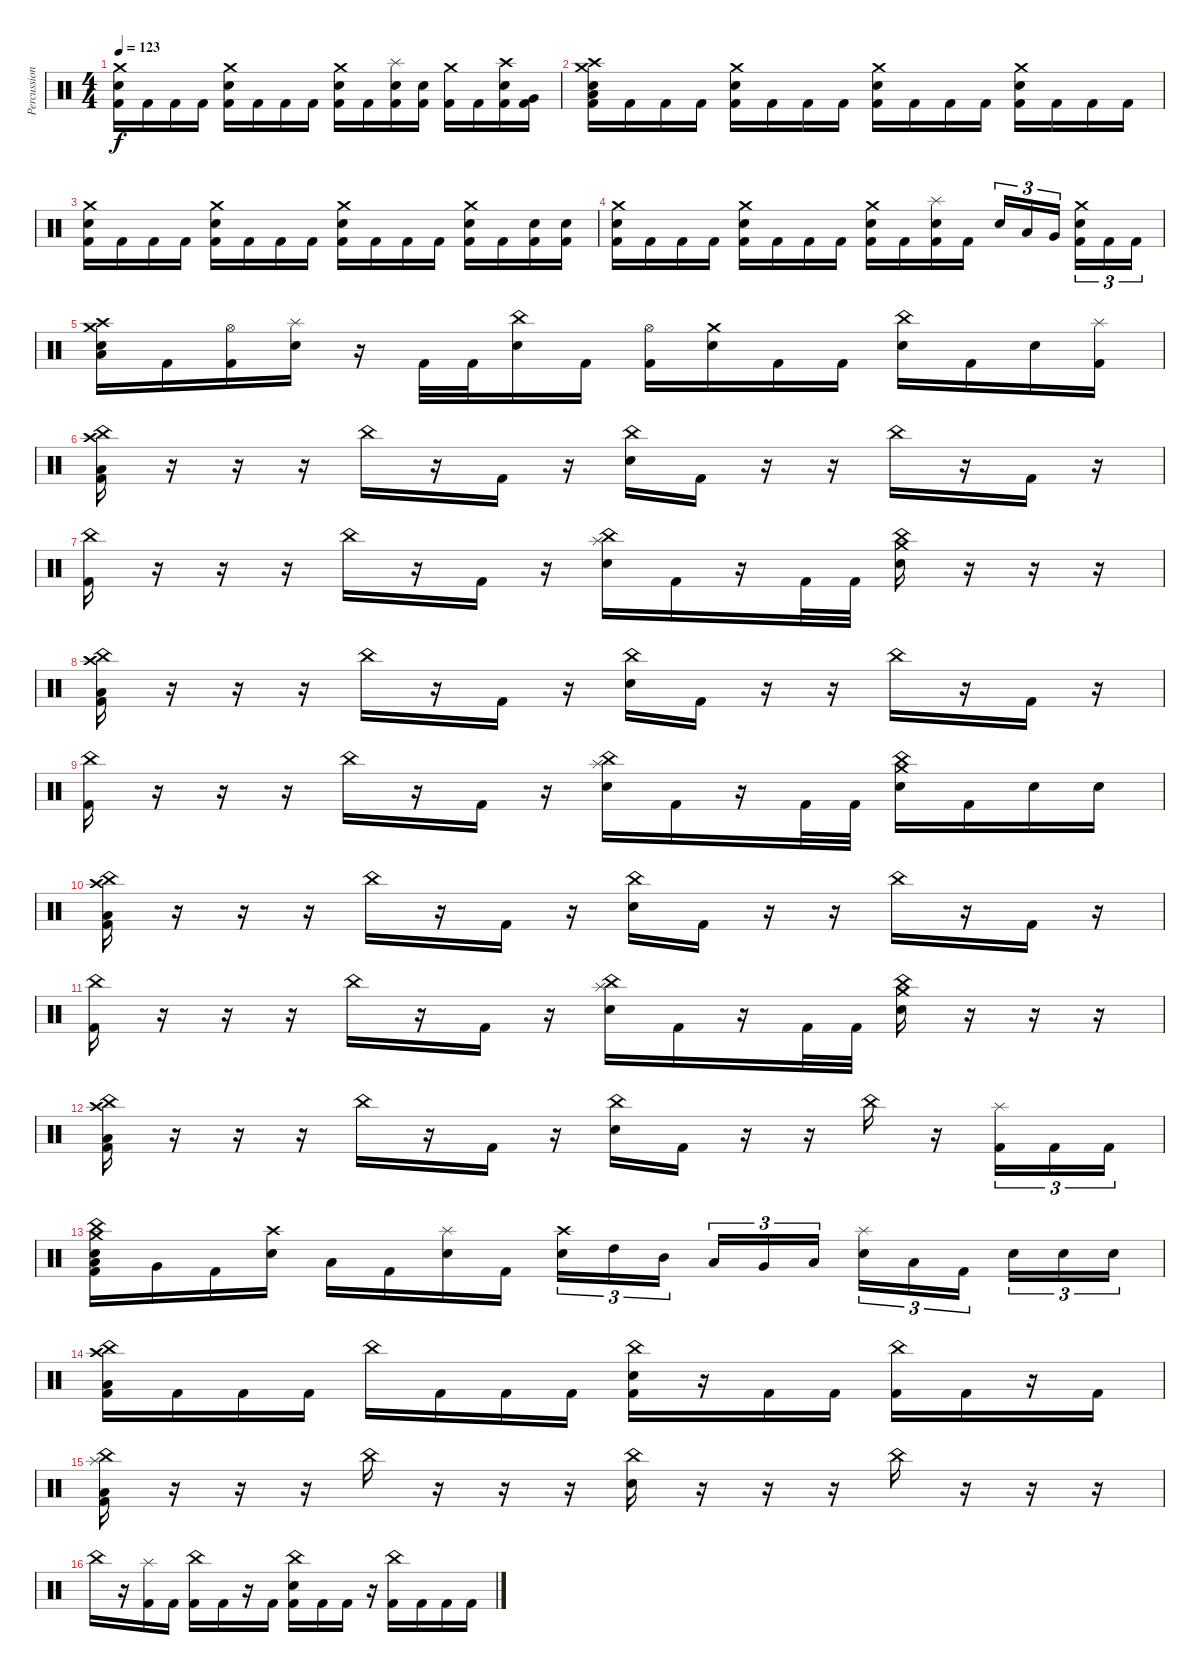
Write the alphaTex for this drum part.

\track ("Percussion" "Percussion") {instrument percussion}
\staff {score}
\articulation defaults
\ts (4 4)
\tempo 123
\clef neutral
\ks c
("Crash medium (hit)" "Electric Snare (hit)" "Kick (hit) 2").16{dy f} "Kick (hit) 2".16 "Kick (hit) 2".16 "Kick (hit) 2".16 ("Crash medium (hit)" "Electric Snare (hit)" "Kick (hit) 2").16 "Kick (hit) 2".16 "Kick (hit) 2".16 "Kick (hit) 2".16 ("Crash medium (hit)" "Electric Snare (hit)" "Kick (hit) 2").16 "Kick (hit) 2".16 ("Splash (hit)" "Electric Snare (hit)" "Kick (hit) 2").16 ("Electric Snare (hit)" "Kick (hit) 2").16 ("Crash medium (hit)" "Kick (hit) 2").16 "Kick (hit) 2".16 ("Crash high (hit)" "Electric Snare (hit)" "Kick (hit) 2").16 ("Very Low Tom (hit)" "Kick (hit) 2").16 |
("Crash medium (hit)" "Crash high (hit)" "Electric Snare (hit)" "Low Floor Tom (hit)" "Kick (hit) 2").16 "Kick (hit) 2".16 "Kick (hit) 2".16 "Kick (hit) 2".16 ("Crash medium (hit)" "Electric Snare (hit)" "Kick (hit) 2").16 "Kick (hit) 2".16 "Kick (hit) 2".16 "Kick (hit) 2".16 ("Crash medium (hit)" "Electric Snare (hit)" "Kick (hit) 2").16 "Kick (hit) 2".16 "Kick (hit) 2".16 "Kick (hit) 2".16 ("Crash medium (hit)" "Electric Snare (hit)" "Kick (hit) 2").16 "Kick (hit) 2".16 "Kick (hit) 2".16 "Kick (hit) 2".16 |
("Crash medium (hit)" "Electric Snare (hit)" "Kick (hit) 2").16 "Kick (hit) 2".16 "Kick (hit) 2".16 "Kick (hit) 2".16 ("Crash medium (hit)" "Electric Snare (hit)" "Kick (hit) 2").16 "Kick (hit) 2".16 "Kick (hit) 2".16 "Kick (hit) 2".16 ("Crash medium (hit)" "Electric Snare (hit)" "Kick (hit) 2").16 "Kick (hit) 2".16 "Kick (hit) 2".16 "Kick (hit) 2".16 ("Crash medium (hit)" "Electric Snare (hit)" "Kick (hit) 2").16 "Kick (hit) 2".16 ("Electric Snare (hit)" "Kick (hit) 2").16 ("Electric Snare (hit)" "Kick (hit) 2").16 |
("Crash medium (hit)" "Electric Snare (hit)" "Kick (hit) 2").16 "Kick (hit) 2".16 "Kick (hit) 2".16 "Kick (hit) 2".16 ("Crash medium (hit)" "Electric Snare (hit)" "Kick (hit) 2").16 "Kick (hit) 2".16 "Kick (hit) 2".16 "Kick (hit) 2".16 ("Crash medium (hit)" "Electric Snare (hit)" "Kick (hit) 2").16 "Kick (hit) 2".16 ("Splash (hit)" "Electric Snare (hit)" "Kick (hit) 2").16 "Kick (hit) 2".16 "Electric Snare (hit)".16{tu (3 2)} "Low Tom (hit)".16{tu (3 2)} "Very Low Tom (hit)".16{tu (3 2)} ("Crash medium (hit)" "Electric Snare (hit)" "Kick (hit) 2").16{tu (3 2)} "Kick (hit) 2".16{tu (3 2)} "Kick (hit) 2".16{tu (3 2)} |
("Crash medium (hit)" "Crash high (hit)" "Electric Snare (hit)" "Low Floor Tom (hit)").16 "Kick (hit) 2".16 ("Hi-Hat (open)" "Kick (hit) 2").16 ("Splash (hit)" "Electric Snare (hit)").16 r.16 "Kick (hit) 2".32 "Kick (hit) 2".32 ("China (hit)" "Electric Snare (hit)").16 "Kick (hit) 2".16 ("Hi-Hat (open)" "Kick (hit) 2").16 ("Crash medium (hit)" "Electric Snare (hit)").16 "Kick (hit) 2".16 "Kick (hit) 2".16 ("China (hit)" "Electric Snare (hit)").16 "Kick (hit) 2".16 "Electric Snare (hit)".16 ("Splash (hit)" "Kick (hit) 2").16 |
("China (hit)" "Crash high (hit)" "Low Floor Tom (hit)" "Kick (hit) 2").16 r.16 r.16 r.16 "China (hit)".16 r.16 "Kick (hit) 2".16 r.16 ("China (hit)" "Electric Snare (hit)").16 "Kick (hit) 2".16 r.16 r.16 "China (hit)".16 r.16 "Kick (hit) 2".16 r.16 |
("China (hit)" "Kick (hit) 2").16 r.16 r.16 r.16 "China (hit)".16 r.16 "Kick (hit) 2".16 r.16 ("China (hit)" "Splash (hit)" "Electric Snare (hit)").16 "Kick (hit) 2".16 r.16 "Kick (hit) 2".32 "Kick (hit) 2".32 ("China (hit)" "Crash medium (hit)" "Electric Snare (hit)").16 r.16 r.16 r.16 |
("China (hit)" "Crash high (hit)" "Low Floor Tom (hit)" "Kick (hit) 2").16 r.16 r.16 r.16 "China (hit)".16 r.16 "Kick (hit) 2".16 r.16 ("China (hit)" "Electric Snare (hit)").16 "Kick (hit) 2".16 r.16 r.16 "China (hit)".16 r.16 "Kick (hit) 2".16 r.16 |
("China (hit)" "Kick (hit) 2").16 r.16 r.16 r.16 "China (hit)".16 r.16 "Kick (hit) 2".16 r.16 ("China (hit)" "Splash (hit)" "Electric Snare (hit)").16 "Kick (hit) 2".16 r.16 "Kick (hit) 2".32 "Kick (hit) 2".32 ("China (hit)" "Crash medium (hit)" "Electric Snare (hit)").16 "Kick (hit) 2".16 "Electric Snare (hit)".16 "Electric Snare (hit)".16 |
("China (hit)" "Crash high (hit)" "Low Floor Tom (hit)" "Kick (hit) 2").16 r.16 r.16 r.16 "China (hit)".16 r.16 "Kick (hit) 2".16 r.16 ("China (hit)" "Electric Snare (hit)").16 "Kick (hit) 2".16 r.16 r.16 "China (hit)".16 r.16 "Kick (hit) 2".16 r.16 |
("China (hit)" "Kick (hit) 2").16 r.16 r.16 r.16 "China (hit)".16 r.16 "Kick (hit) 2".16 r.16 ("China (hit)" "Splash (hit)" "Electric Snare (hit)").16 "Kick (hit) 2".16 r.16 "Kick (hit) 2".32 "Kick (hit) 2".32 ("China (hit)" "Crash medium (hit)" "Electric Snare (hit)").16 r.16 r.16 r.16 |
("China (hit)" "Crash high (hit)" "Low Floor Tom (hit)" "Kick (hit) 2").16 r.16 r.16 r.16 "China (hit)".16 r.16 "Kick (hit) 2".16 r.16 ("China (hit)" "Electric Snare (hit)").16 "Kick (hit) 2".16 r.16 r.16 "China (hit)".16 r.16 ("Splash (hit)" "Kick (hit) 2").16{tu (3 2)} "Kick (hit) 2".16{tu (3 2)} "Kick (hit) 2".16{tu (3 2)} |
("China (hit)" "Crash medium (hit)" "Electric Snare (hit)" "Low Floor Tom (hit)" "Kick (hit) 2").16 "Very Low Tom (hit)".16 "Kick (hit) 2".16 ("Crash high (hit)" "Electric Snare (hit)").16 "Low Floor Tom (hit)".16 "Kick (hit) 2".16 ("Splash (hit)" "Electric Snare (hit)").16 "Kick (hit) 2".16 ("Crash high (hit)" "Electric Snare (hit)").16{tu (3 2)} "High Tom (hit)".16{tu (3 2)} "Mid Tom (hit)".16{tu (3 2)} "Low Tom (hit)".16{tu (3 2)} "Very Low Tom (hit)".16{tu (3 2)} "Low Floor Tom (hit)".16{tu (3 2)} ("Splash (hit)" "Electric Snare (hit)").16{tu (3 2)} "Low Floor Tom (hit)".16{tu (3 2)} "Kick (hit) 2".16{tu (3 2)} "Electric Snare (hit)".16{tu (3 2)} "Electric Snare (hit)".16{tu (3 2)} "Electric Snare (hit)".16{tu (3 2)} |
("China (hit)" "Crash high (hit)" "Low Floor Tom (hit)" "Kick (hit) 2").16 "Kick (hit) 2".16 "Kick (hit) 2".16 "Kick (hit) 2".16 "China (hit)".16 "Kick (hit) 2".16 "Kick (hit) 2".16 "Kick (hit) 2".16 ("China (hit)" "Electric Snare (hit)" "Kick (hit) 2").16 r.16 "Kick (hit) 2".16 "Kick (hit) 2".16 ("China (hit)" "Kick (hit) 2").16 "Kick (hit) 2".16 r.16 "Kick (hit) 2".16 |
("China (hit)" "Splash (hit)" "Low Floor Tom (hit)" "Kick (hit) 2").16 r.16 r.16 r.16 "China (hit)".16 r.16 r.16 r.16 ("China (hit)" "Electric Snare (hit)").16 r.16 r.16 r.16 "China (hit)".16 r.16 r.16 r.16 |
"China (hit)".16 r.16 ("Splash (hit)" "Kick (hit) 2").16 "Kick (hit) 2".16 ("China (hit)" "Kick (hit) 2").16 "Kick (hit) 2".16 r.16 "Kick (hit) 2".16 ("China (hit)" "Electric Snare (hit)" "Kick (hit) 2").16 "Kick (hit) 2".16 "Kick (hit) 2".16 r.16 ("China (hit)" "Kick (hit) 2").16 "Kick (hit) 2".16 "Kick (hit) 2".16 "Kick (hit) 2".16
